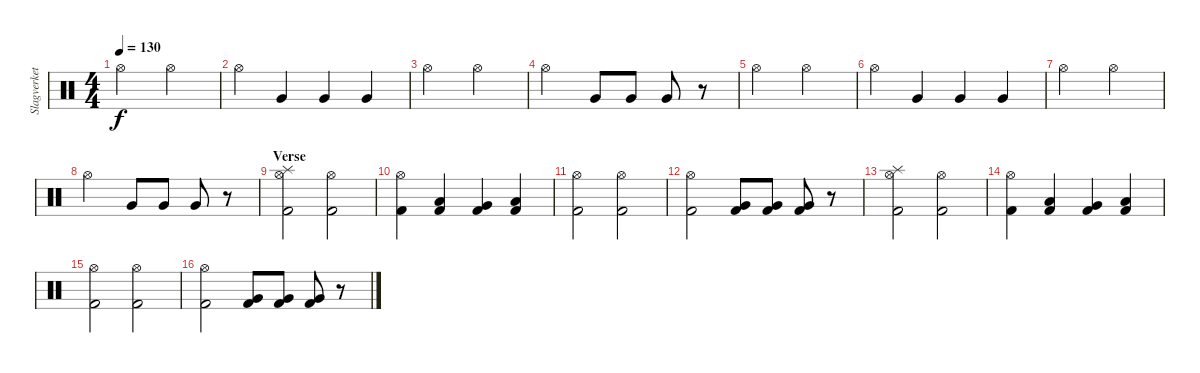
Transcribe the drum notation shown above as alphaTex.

\track ("Slagverket !!" "Slagverket") {instrument percussion}
\staff {score}
\articulation defaults
\ts (4 4)
\section ("" "")
\tempo 130
\clef neutral
\ks c "Hi-Hat (open)".2{dy f} "Hi-Hat (open)".2
|
"Hi-Hat (open)".4 "Very Low Tom (hit)".4 "Very Low Tom (hit)".4 "Very Low Tom (hit)".4 |
"Hi-Hat (open)".2 "Hi-Hat (open)".2 |
"Hi-Hat (open)".2 "Very Low Tom (hit)".8 "Very Low Tom (hit)".8 "Very Low Tom (hit)".8 r.8 |
"Hi-Hat (open)".2 "Hi-Hat (open)".2 |
"Hi-Hat (open)".4 "Very Low Tom (hit)".4 "Very Low Tom (hit)".4 "Very Low Tom (hit)".4 |
"Hi-Hat (open)".2 "Hi-Hat (open)".2 |
"Hi-Hat (open)".2 "Very Low Tom (hit)".8 "Very Low Tom (hit)".8 "Very Low Tom (hit)".8 r.8 |
\section ("" "Verse")
("Hi-Hat (open)" "Splash (hit)" "Kick (hit) 2").2 ("Hi-Hat (open)" "Kick (hit) 2").2 |
("Hi-Hat (open)" "Kick (hit) 2").4 ("Low Tom (hit)" "Kick (hit) 2").4 ("Very Low Tom (hit)" "Kick (hit) 2").4 ("Low Floor Tom (hit)" "Kick (hit) 2").4 |
("Hi-Hat (open)" "Kick (hit) 2").2 ("Hi-Hat (open)" "Kick (hit) 2").2 |
("Hi-Hat (open)" "Kick (hit) 2").2 ("Very Low Tom (hit)" "Kick (hit) 2").8 ("Very Low Tom (hit)" "Kick (hit) 2").8 ("Very Low Tom (hit)" "Kick (hit) 2").8 r.8 |
("Hi-Hat (open)" "Splash (hit)" "Kick (hit) 2").2 ("Hi-Hat (open)" "Kick (hit) 2").2 |
("Hi-Hat (open)" "Kick (hit) 2").4 ("Low Tom (hit)" "Kick (hit) 2").4 ("Very Low Tom (hit)" "Kick (hit) 2").4 ("Low Floor Tom (hit)" "Kick (hit) 2").4 |
("Hi-Hat (open)" "Kick (hit) 2").2 ("Hi-Hat (open)" "Kick (hit) 2").2 |
("Hi-Hat (open)" "Kick (hit) 2").2 ("Very Low Tom (hit)" "Kick (hit) 2").8 ("Very Low Tom (hit)" "Kick (hit) 2").8 ("Very Low Tom (hit)" "Kick (hit) 2").8 r.8
